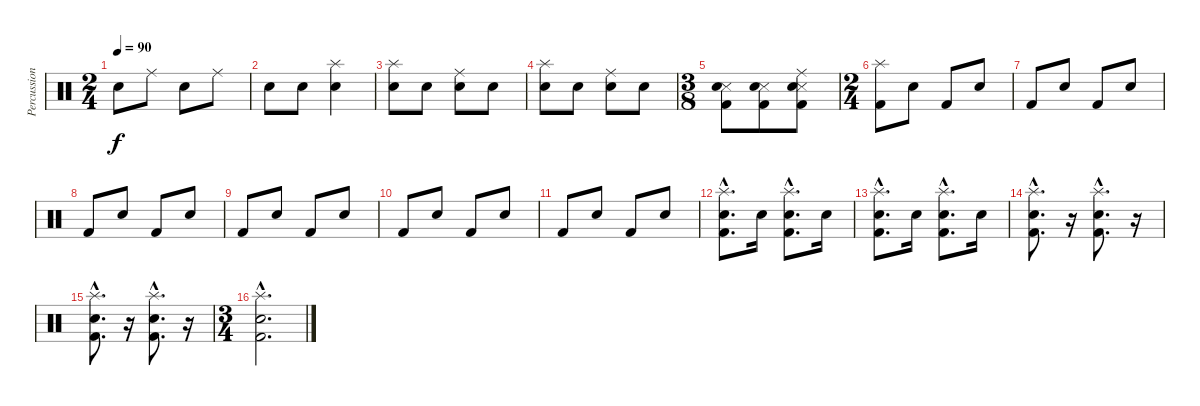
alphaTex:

\track ("Percussion" "Percussion") {instrument percussion}
\staff {score}
\articulation defaults
\ts (2 4)
\tempo 90
\clef neutral
\ks c "Electric Snare (hit)".8{dy f} "Ride (middle)".8 "Electric Snare (hit)".8 "Ride (middle)".8
|
"Electric Snare (hit)".8 "Electric Snare (hit)".8 ("Splash (hit)" "Electric Snare (hit)").4 |
("Splash (hit)" "Electric Snare (hit)").8 "Electric Snare (hit)".8 ("Ride (middle)" "Electric Snare (hit)").8 "Electric Snare (hit)".8 |
("Splash (hit)" "Electric Snare (hit)").8 "Electric Snare (hit)".8 ("Ride (middle)" "Electric Snare (hit)").8 "Electric Snare (hit)".8 |
\ts (3 8)
("Snare (side stick) 3" "Snare (hit) 2" "Kick (hit) 2").8 ("Snare (side stick) 3" "Snare (hit) 2" "Kick (hit) 2").8 ("Ride (middle)" "Snare (side stick) 3" "Snare (hit) 2" "Kick (hit) 2").8 |
\ts (2 4)
("Splash (hit)" "Kick (hit) 2").8 "Snare (hit) 2".8 "Kick (hit) 2".8 "Snare (hit) 2".8 |
"Kick (hit) 2".8 "Snare (hit) 2".8 "Kick (hit) 2".8 "Snare (hit) 2".8 |
"Kick (hit) 2".8 "Snare (hit) 2".8 "Kick (hit) 2".8 "Snare (hit) 2".8 |
"Kick (hit) 2".8 "Snare (hit) 2".8 "Kick (hit) 2".8 "Snare (hit) 2".8 |
"Kick (hit) 2".8 "Snare (hit) 2".8 "Kick (hit) 2".8 "Snare (hit) 2".8 |
"Kick (hit) 2".8 "Snare (hit) 2".8 "Kick (hit) 2".8 "Snare (hit) 2".8 |
("Splash (hit)"{hac} "Snare (hit) 2"{hac} "Kick (hit) 2"{hac}).8{d} "Snare (hit) 2".16 ("Splash (hit)"{hac} "Snare (hit) 2"{hac} "Kick (hit) 2"{hac}).8{d} "Snare (hit) 2".16 |
("Splash (hit)"{hac} "Snare (hit) 2"{hac} "Kick (hit) 2"{hac}).8{d} "Snare (hit) 2".16 ("Splash (hit)"{hac} "Snare (hit) 2"{hac} "Kick (hit) 2"{hac}).8{d} "Snare (hit) 2".16 |
("Splash (hit)"{hac} "Snare (hit) 2"{hac} "Kick (hit) 2"{hac}).8{d} r.16 ("Splash (hit)"{hac} "Snare (hit) 2"{hac} "Kick (hit) 2"{hac}).8{d} r.16 |
("Splash (hit)"{hac} "Snare (hit) 2"{hac} "Kick (hit) 2"{hac}).8{d} r.16 ("Splash (hit)"{hac} "Snare (hit) 2"{hac} "Kick (hit) 2"{hac}).8{d} r.16 |
\ts (3 4)
("Splash (hit)"{hac} "Snare (hit) 2"{hac} "Kick (hit) 2"{hac}).2{d}
